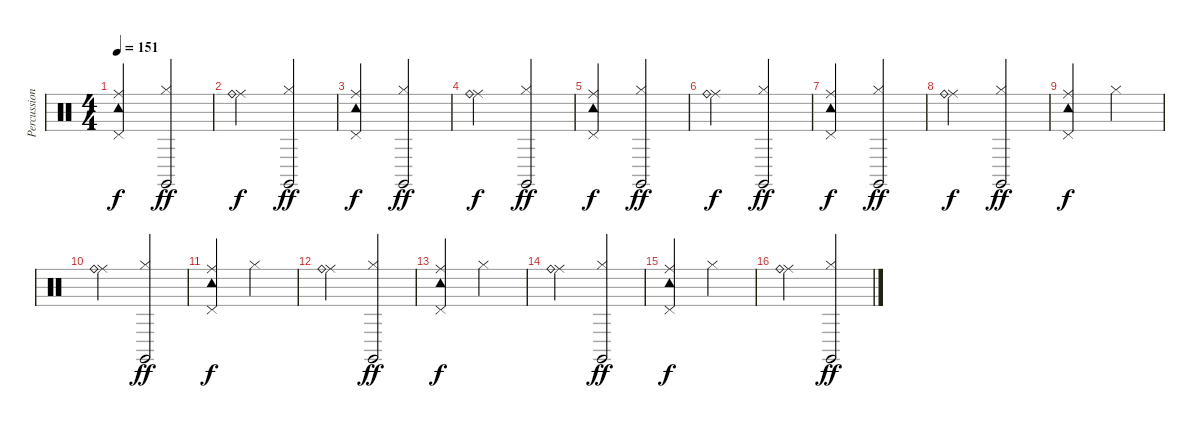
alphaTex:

\track ("Percussion" "Percussion") {instrument percussion}
\staff {score}
\articulation defaults
\ts (4 4)
\tempo 151
\clef neutral
\ks c
("Ride (middle)" "Tambourine (hit)" "Pedal Hi-Hat (hit)").2{dy f} ("Hi-Hat (closed)" "Claves (hit)").2{dy ff} |
("Ride (middle)" "Ride (bell)").2{dy f} ("Hi-Hat (closed)" "Claves (hit)").2{dy ff} |
("Ride (middle)" "Tambourine (hit)" "Pedal Hi-Hat (hit)").2{dy f} ("Hi-Hat (closed)" "Claves (hit)").2{dy ff} |
("Ride (middle)" "Ride (bell)").2{dy f} ("Hi-Hat (closed)" "Claves (hit)").2{dy ff} |
("Ride (middle)" "Tambourine (hit)" "Pedal Hi-Hat (hit)").2{dy f} ("Hi-Hat (closed)" "Claves (hit)").2{dy ff} |
("Ride (middle)" "Ride (bell)").2{dy f} ("Hi-Hat (closed)" "Claves (hit)").2{dy ff} |
("Ride (middle)" "Tambourine (hit)" "Pedal Hi-Hat (hit)").2{dy f} ("Hi-Hat (closed)" "Claves (hit)").2{dy ff} |
("Ride (middle)" "Ride (bell)").2{dy f} ("Hi-Hat (closed)" "Claves (hit)").2{dy ff} |
("Ride (middle)" "Tambourine (hit)" "Pedal Hi-Hat (hit)").2{dy f} "Hi-Hat (closed)".2 |
("Ride (middle)" "Ride (bell)").2 ("Hi-Hat (closed)" "Claves (hit)").2{dy ff} |
("Ride (middle)" "Tambourine (hit)" "Pedal Hi-Hat (hit)").2{dy f} "Hi-Hat (closed)".2 |
("Ride (middle)" "Ride (bell)").2 ("Hi-Hat (closed)" "Claves (hit)").2{dy ff} |
("Ride (middle)" "Tambourine (hit)" "Pedal Hi-Hat (hit)").2{dy f} "Hi-Hat (closed)".2 |
("Ride (middle)" "Ride (bell)").2 ("Hi-Hat (closed)" "Claves (hit)").2{dy ff} |
("Ride (middle)" "Tambourine (hit)" "Pedal Hi-Hat (hit)").2{dy f} "Hi-Hat (closed)".2 |
("Ride (middle)" "Ride (bell)").2 ("Hi-Hat (closed)" "Claves (hit)").2{dy ff}
